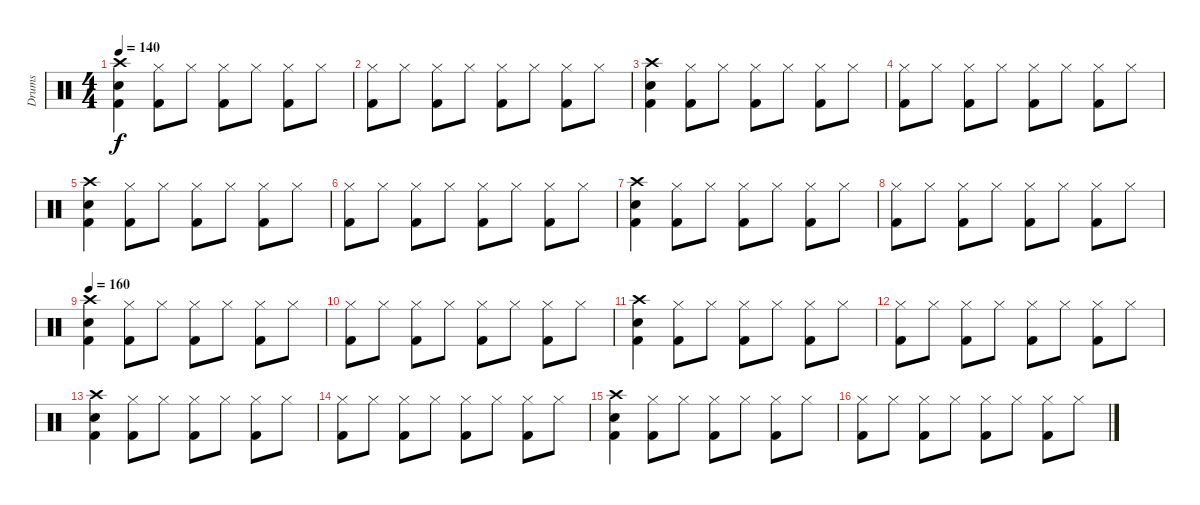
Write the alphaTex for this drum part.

\track ("Drums" "Drums") {instrument percussion}
\staff {score}
\articulation defaults
\ts (4 4)
\tempo 140
\clef neutral
\ks c
("Crash high (hit)" "Snare (hit) 2" "Kick (hit) 2").4{dy f} ("Hi-Hat (closed)" "Kick (hit) 2").8 "Hi-Hat (closed)".8 ("Hi-Hat (closed)" "Kick (hit) 2").8 "Hi-Hat (closed)".8 ("Hi-Hat (closed)" "Kick (hit) 2").8 "Hi-Hat (closed)".8 |
("Hi-Hat (closed)" "Kick (hit) 2").8 "Hi-Hat (closed)".8 ("Hi-Hat (closed)" "Kick (hit) 2").8 "Hi-Hat (closed)".8 ("Hi-Hat (closed)" "Kick (hit) 2").8 "Hi-Hat (closed)".8 ("Hi-Hat (closed)" "Kick (hit) 2").8 "Hi-Hat (closed)".8 |
("Crash high (hit)" "Snare (hit) 2" "Kick (hit) 2").4 ("Hi-Hat (closed)" "Kick (hit) 2").8 "Hi-Hat (closed)".8 ("Hi-Hat (closed)" "Kick (hit) 2").8 "Hi-Hat (closed)".8 ("Hi-Hat (closed)" "Kick (hit) 2").8 "Hi-Hat (closed)".8 |
("Hi-Hat (closed)" "Kick (hit) 2").8 "Hi-Hat (closed)".8 ("Hi-Hat (closed)" "Kick (hit) 2").8 "Hi-Hat (closed)".8 ("Hi-Hat (closed)" "Kick (hit) 2").8 "Hi-Hat (closed)".8 ("Hi-Hat (closed)" "Kick (hit) 2").8 "Hi-Hat (closed)".8 |
("Crash high (hit)" "Snare (hit) 2" "Kick (hit) 2").4 ("Hi-Hat (closed)" "Kick (hit) 2").8 "Hi-Hat (closed)".8 ("Hi-Hat (closed)" "Kick (hit) 2").8 "Hi-Hat (closed)".8 ("Hi-Hat (closed)" "Kick (hit) 2").8 "Hi-Hat (closed)".8 |
("Hi-Hat (closed)" "Kick (hit) 2").8 "Hi-Hat (closed)".8 ("Hi-Hat (closed)" "Kick (hit) 2").8 "Hi-Hat (closed)".8 ("Hi-Hat (closed)" "Kick (hit) 2").8 "Hi-Hat (closed)".8 ("Hi-Hat (closed)" "Kick (hit) 2").8 "Hi-Hat (closed)".8 |
("Crash high (hit)" "Snare (hit) 2" "Kick (hit) 2").4 ("Hi-Hat (closed)" "Kick (hit) 2").8 "Hi-Hat (closed)".8 ("Hi-Hat (closed)" "Kick (hit) 2").8 "Hi-Hat (closed)".8 ("Hi-Hat (closed)" "Kick (hit) 2").8 "Hi-Hat (closed)".8 |
("Hi-Hat (closed)" "Kick (hit) 2").8 "Hi-Hat (closed)".8 ("Hi-Hat (closed)" "Kick (hit) 2").8 "Hi-Hat (closed)".8 ("Hi-Hat (closed)" "Kick (hit) 2").8 "Hi-Hat (closed)".8 ("Hi-Hat (closed)" "Kick (hit) 2").8 "Hi-Hat (closed)".8 |
\tempo 160
("Crash high (hit)" "Snare (hit) 2" "Kick (hit) 2").4 ("Hi-Hat (closed)" "Kick (hit) 2").8 "Hi-Hat (closed)".8 ("Hi-Hat (closed)" "Kick (hit) 2").8 "Hi-Hat (closed)".8 ("Hi-Hat (closed)" "Kick (hit) 2").8 "Hi-Hat (closed)".8 |
("Hi-Hat (closed)" "Kick (hit) 2").8 "Hi-Hat (closed)".8 ("Hi-Hat (closed)" "Kick (hit) 2").8 "Hi-Hat (closed)".8 ("Hi-Hat (closed)" "Kick (hit) 2").8 "Hi-Hat (closed)".8 ("Hi-Hat (closed)" "Kick (hit) 2").8 "Hi-Hat (closed)".8 |
("Crash high (hit)" "Snare (hit) 2" "Kick (hit) 2").4 ("Hi-Hat (closed)" "Kick (hit) 2").8 "Hi-Hat (closed)".8 ("Hi-Hat (closed)" "Kick (hit) 2").8 "Hi-Hat (closed)".8 ("Hi-Hat (closed)" "Kick (hit) 2").8 "Hi-Hat (closed)".8 |
("Hi-Hat (closed)" "Kick (hit) 2").8 "Hi-Hat (closed)".8 ("Hi-Hat (closed)" "Kick (hit) 2").8 "Hi-Hat (closed)".8 ("Hi-Hat (closed)" "Kick (hit) 2").8 "Hi-Hat (closed)".8 ("Hi-Hat (closed)" "Kick (hit) 2").8 "Hi-Hat (closed)".8 |
("Crash high (hit)" "Snare (hit) 2" "Kick (hit) 2").4 ("Hi-Hat (closed)" "Kick (hit) 2").8 "Hi-Hat (closed)".8 ("Hi-Hat (closed)" "Kick (hit) 2").8 "Hi-Hat (closed)".8 ("Hi-Hat (closed)" "Kick (hit) 2").8 "Hi-Hat (closed)".8 |
("Hi-Hat (closed)" "Kick (hit) 2").8 "Hi-Hat (closed)".8 ("Hi-Hat (closed)" "Kick (hit) 2").8 "Hi-Hat (closed)".8 ("Hi-Hat (closed)" "Kick (hit) 2").8 "Hi-Hat (closed)".8 ("Hi-Hat (closed)" "Kick (hit) 2").8 "Hi-Hat (closed)".8 |
("Crash high (hit)" "Snare (hit) 2" "Kick (hit) 2").4 ("Hi-Hat (closed)" "Kick (hit) 2").8 "Hi-Hat (closed)".8 ("Hi-Hat (closed)" "Kick (hit) 2").8 "Hi-Hat (closed)".8 ("Hi-Hat (closed)" "Kick (hit) 2").8 "Hi-Hat (closed)".8 |
("Hi-Hat (closed)" "Kick (hit) 2").8 "Hi-Hat (closed)".8 ("Hi-Hat (closed)" "Kick (hit) 2").8 "Hi-Hat (closed)".8 ("Hi-Hat (closed)" "Kick (hit) 2").8 "Hi-Hat (closed)".8 ("Hi-Hat (closed)" "Kick (hit) 2").8 "Hi-Hat (closed)".8
